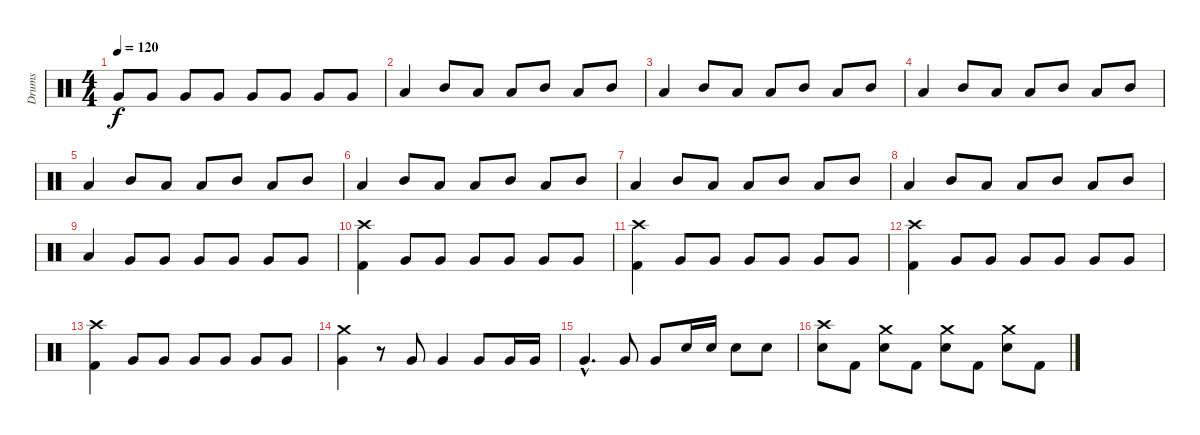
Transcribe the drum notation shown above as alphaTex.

\track ("Drums" "Drums") {instrument percussion}
\staff {score}
\articulation defaults
\ts (4 4)
\tempo 120
\clef neutral
\ks c "Very Low Tom (hit)".8{dy f} "Very Low Tom (hit)".8 "Very Low Tom (hit)".8 "Very Low Tom (hit)".8 "Very Low Tom (hit)".8 "Very Low Tom (hit)".8 "Very Low Tom (hit)".8 "Very Low Tom (hit)".8
|
"Low Floor Tom (hit)".4 "Mid Tom (hit)".8 "Low Tom (hit)".8 "Low Tom (hit)".8 "Mid Tom (hit)".8 "Low Tom (hit)".8 "Mid Tom (hit)".8 |
"Low Floor Tom (hit)".4 "Mid Tom (hit)".8 "Low Tom (hit)".8 "Low Tom (hit)".8 "Mid Tom (hit)".8 "Low Tom (hit)".8 "Mid Tom (hit)".8 |
"Low Floor Tom (hit)".4 "Mid Tom (hit)".8 "Low Tom (hit)".8 "Low Tom (hit)".8 "Mid Tom (hit)".8 "Low Tom (hit)".8 "Mid Tom (hit)".8 |
"Low Floor Tom (hit)".4 "Mid Tom (hit)".8 "Low Tom (hit)".8 "Low Tom (hit)".8 "Mid Tom (hit)".8 "Low Tom (hit)".8 "Mid Tom (hit)".8 |
"Low Floor Tom (hit)".4 "Mid Tom (hit)".8 "Low Tom (hit)".8 "Low Tom (hit)".8 "Mid Tom (hit)".8 "Low Tom (hit)".8 "Mid Tom (hit)".8 |
"Low Floor Tom (hit)".4 "Mid Tom (hit)".8 "Low Tom (hit)".8 "Low Tom (hit)".8 "Mid Tom (hit)".8 "Low Tom (hit)".8 "Mid Tom (hit)".8 |
"Low Floor Tom (hit)".4 "Mid Tom (hit)".8 "Low Tom (hit)".8 "Low Tom (hit)".8 "Mid Tom (hit)".8 "Low Tom (hit)".8 "Mid Tom (hit)".8 |
"Low Floor Tom (hit)".4 "Very Low Tom (hit)".8 "Very Low Tom (hit)".8 "Very Low Tom (hit)".8 "Very Low Tom (hit)".8 "Very Low Tom (hit)".8 "Very Low Tom (hit)".8 |
("Crash high (hit)" "Kick (hit) 2").4 "Very Low Tom (hit)".8 "Very Low Tom (hit)".8 "Very Low Tom (hit)".8 "Very Low Tom (hit)".8 "Very Low Tom (hit)".8 "Very Low Tom (hit)".8 |
("Crash high (hit)" "Kick (hit) 2").4 "Very Low Tom (hit)".8 "Very Low Tom (hit)".8 "Very Low Tom (hit)".8 "Very Low Tom (hit)".8 "Very Low Tom (hit)".8 "Very Low Tom (hit)".8 |
("Crash high (hit)" "Kick (hit) 2").4 "Very Low Tom (hit)".8 "Very Low Tom (hit)".8 "Very Low Tom (hit)".8 "Very Low Tom (hit)".8 "Very Low Tom (hit)".8 "Very Low Tom (hit)".8 |
("Crash high (hit)" "Kick (hit) 2").4 "Very Low Tom (hit)".8 "Very Low Tom (hit)".8 "Very Low Tom (hit)".8 "Very Low Tom (hit)".8 "Very Low Tom (hit)".8 "Very Low Tom (hit)".8 |
("Crash medium (hit)" "Very Low Tom (hit)").4 r.8 "Very Low Tom (hit)".8 "Very Low Tom (hit)".4 "Very Low Tom (hit)".8 "Very Low Tom (hit)".16 "Very Low Tom (hit)".16 |
"Very Low Tom (hit)"{hac}.4{d} "Very Low Tom (hit)".8 "Very Low Tom (hit)".8 "Electric Snare (hit)".16 "Electric Snare (hit)".16 "Electric Snare (hit)".8 "Electric Snare (hit)".8 |
("Crash high (hit)" "Electric Snare (hit)").8 "Kick (hit) 2".8 ("Crash medium (hit)" "Electric Snare (hit)").8 "Kick (hit) 2".8 ("Crash medium (hit)" "Electric Snare (hit)").8 "Kick (hit) 2".8 ("Crash medium (hit)" "Electric Snare (hit)").8 "Kick (hit) 2".8
